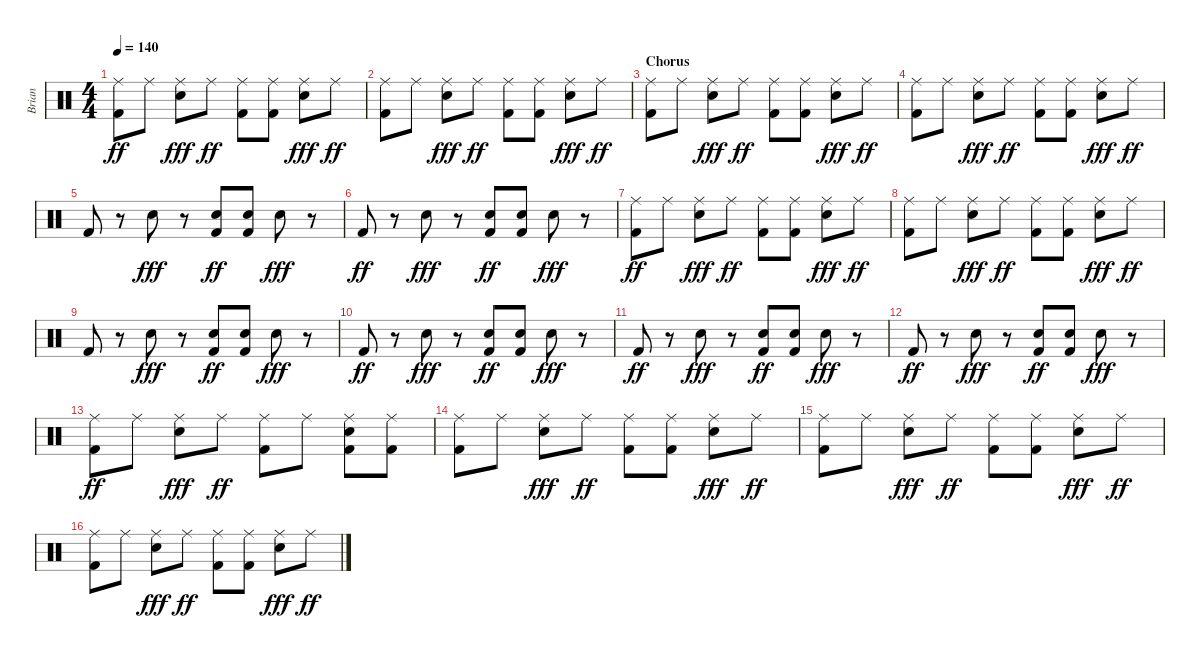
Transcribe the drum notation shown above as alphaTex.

\track ("Brian" "Brian") {instrument percussion}
\staff {score}
\articulation defaults
\ts (4 4)
\tempo 140
\clef neutral
\ks c
("Ride (middle)" "Kick (hit) 2").8{dy ff} "Ride (middle)".8 ("Ride (middle)" "Snare (hit) 2").8{dy fff} "Ride (middle)".8{dy ff} ("Ride (middle)" "Kick (hit) 2").8 ("Ride (middle)" "Kick (hit) 2").8 ("Ride (middle)" "Snare (hit) 2").8{dy fff} "Ride (middle)".8{dy ff} |
("Ride (middle)" "Kick (hit) 2").8 "Ride (middle)".8 ("Ride (middle)" "Snare (hit) 2").8{dy fff} "Ride (middle)".8{dy ff} ("Ride (middle)" "Kick (hit) 2").8 ("Ride (middle)" "Kick (hit) 2").8 ("Ride (middle)" "Snare (hit) 2").8{dy fff} "Ride (middle)".8{dy ff} |
\section ("" "Chorus")
("Ride (middle)" "Kick (hit) 2").8 "Ride (middle)".8 ("Ride (middle)" "Snare (hit) 2").8{dy fff} "Ride (middle)".8{dy ff} ("Ride (middle)" "Kick (hit) 2").8 ("Ride (middle)" "Kick (hit) 2").8 ("Ride (middle)" "Snare (hit) 2").8{dy fff} "Ride (middle)".8{dy ff} |
("Ride (middle)" "Kick (hit) 2").8 "Ride (middle)".8 ("Ride (middle)" "Snare (hit) 2").8{dy fff} "Ride (middle)".8{dy ff} ("Ride (middle)" "Kick (hit) 2").8 ("Ride (middle)" "Kick (hit) 2").8 ("Ride (middle)" "Snare (hit) 2").8{dy fff} "Ride (middle)".8{dy ff} |
"Kick (hit) 2".8 r.8 "Snare (hit) 2".8{dy fff} r.8 ("Snare (hit) 2" "Kick (hit) 2").8{dy ff} ("Snare (hit) 2" "Kick (hit) 2").8 "Snare (hit) 2".8{dy fff} r.8 |
"Kick (hit) 2".8{dy ff} r.8 "Snare (hit) 2".8{dy fff} r.8 ("Snare (hit) 2" "Kick (hit) 2").8{dy ff} ("Snare (hit) 2" "Kick (hit) 2").8 "Snare (hit) 2".8{dy fff} r.8 |
("Ride (middle)" "Kick (hit) 2").8{dy ff} "Ride (middle)".8 ("Ride (middle)" "Snare (hit) 2").8{dy fff} "Ride (middle)".8{dy ff} ("Ride (middle)" "Kick (hit) 2").8 ("Ride (middle)" "Kick (hit) 2").8 ("Ride (middle)" "Snare (hit) 2").8{dy fff} "Ride (middle)".8{dy ff} |
("Ride (middle)" "Kick (hit) 2").8 "Ride (middle)".8 ("Ride (middle)" "Snare (hit) 2").8{dy fff} "Ride (middle)".8{dy ff} ("Ride (middle)" "Kick (hit) 2").8 ("Ride (middle)" "Kick (hit) 2").8 ("Ride (middle)" "Snare (hit) 2").8{dy fff} "Ride (middle)".8{dy ff} |
"Kick (hit) 2".8 r.8 "Snare (hit) 2".8{dy fff} r.8 ("Snare (hit) 2" "Kick (hit) 2").8{dy ff} ("Snare (hit) 2" "Kick (hit) 2").8 "Snare (hit) 2".8{dy fff} r.8 |
"Kick (hit) 2".8{dy ff} r.8 "Snare (hit) 2".8{dy fff} r.8 ("Snare (hit) 2" "Kick (hit) 2").8{dy ff} ("Snare (hit) 2" "Kick (hit) 2").8 "Snare (hit) 2".8{dy fff} r.8 |
"Kick (hit) 2".8{dy ff} r.8 "Snare (hit) 2".8{dy fff} r.8 ("Snare (hit) 2" "Kick (hit) 2").8{dy ff} ("Snare (hit) 2" "Kick (hit) 2").8 "Snare (hit) 2".8{dy fff} r.8 |
"Kick (hit) 2".8{dy ff} r.8 "Snare (hit) 2".8{dy fff} r.8 ("Snare (hit) 2" "Kick (hit) 2").8{dy ff} ("Snare (hit) 2" "Kick (hit) 2").8 "Snare (hit) 2".8{dy fff} r.8 |
("Ride (middle)" "Kick (hit) 2").8{dy ff} "Ride (middle)".8 ("Ride (middle)" "Snare (hit) 2").8{dy fff} "Ride (middle)".8{dy ff} ("Ride (middle)" "Kick (hit) 2").8 "Ride (middle)".8 ("Ride (middle)" "Snare (hit) 2" "Kick (hit) 2").8 ("Ride (middle)" "Kick (hit) 2").8 |
("Ride (middle)" "Kick (hit) 2").8 "Ride (middle)".8 ("Ride (middle)" "Snare (hit) 2").8{dy fff} "Ride (middle)".8{dy ff} ("Ride (middle)" "Kick (hit) 2").8 ("Ride (middle)" "Kick (hit) 2").8 ("Ride (middle)" "Snare (hit) 2").8{dy fff} "Ride (middle)".8{dy ff} |
("Ride (middle)" "Kick (hit) 2").8 "Ride (middle)".8 ("Ride (middle)" "Snare (hit) 2").8{dy fff} "Ride (middle)".8{dy ff} ("Ride (middle)" "Kick (hit) 2").8 ("Ride (middle)" "Kick (hit) 2").8 ("Ride (middle)" "Snare (hit) 2").8{dy fff} "Ride (middle)".8{dy ff} |
("Ride (middle)" "Kick (hit) 2").8 "Ride (middle)".8 ("Ride (middle)" "Snare (hit) 2").8{dy fff} "Ride (middle)".8{dy ff} ("Ride (middle)" "Kick (hit) 2").8 ("Ride (middle)" "Kick (hit) 2").8 ("Ride (middle)" "Snare (hit) 2").8{dy fff} "Ride (middle)".8{dy ff}
